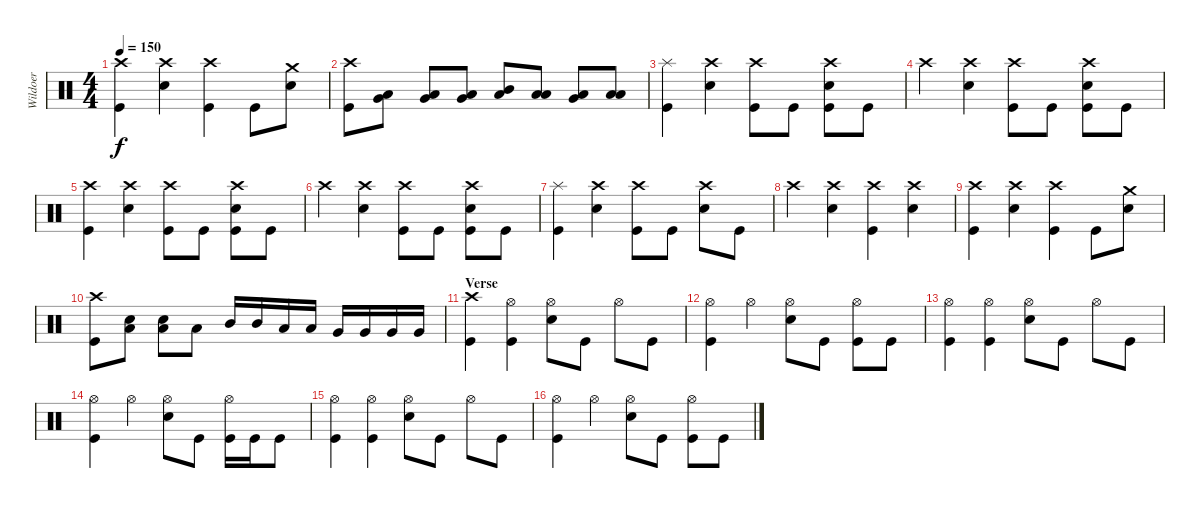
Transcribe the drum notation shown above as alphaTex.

\track ("Wildoer" "Wildoer") {instrument percussion}
\staff {score}
\articulation defaults
\ts (4 4)
\tempo 150
\clef neutral
\ks c
("Crash high (hit)" "Kick (hit)").4{dy f} ("Crash high (hit)" "Electric Snare (hit)").4 ("Crash high (hit)" "Kick (hit)").4 "Kick (hit)".8 ("Crash medium (hit)" "Electric Snare (hit)").8 |
("Crash high (hit)" "Kick (hit)").8 ("Low Floor Tom (hit)" "Very Low Tom (hit)").8 ("Low Floor Tom (hit)" "Very Low Tom (hit)").8 ("Low Floor Tom (hit)" "Very Low Tom (hit)").8 ("Mid Tom (hit)" "Low Floor Tom (hit)").8 ("Low Tom (hit)" "Low Floor Tom (hit)").8 ("Very Low Tom (hit)" "Low Floor Tom (hit)").8 ("Low Tom (hit)" "Low Floor Tom (hit)").8 |
("Splash (hit)" "Kick (hit)").4 ("Crash high (hit)" "Electric Snare (hit)").4 ("Crash high (hit)" "Kick (hit)").8 "Kick (hit)".8 ("Crash high (hit)" "Electric Snare (hit)" "Kick (hit)").8 "Kick (hit)".8 |
"Crash high (hit)".4 ("Crash high (hit)" "Electric Snare (hit)").4 ("Crash high (hit)" "Kick (hit)").8 "Kick (hit)".8 ("Crash high (hit)" "Electric Snare (hit)" "Kick (hit)").8 "Kick (hit)".8 |
("Crash high (hit)" "Kick (hit)").4 ("Crash high (hit)" "Electric Snare (hit)").4 ("Crash high (hit)" "Kick (hit)").8 "Kick (hit)".8 ("Crash high (hit)" "Electric Snare (hit)" "Kick (hit)").8 "Kick (hit)".8 |
"Crash high (hit)".4 ("Crash high (hit)" "Electric Snare (hit)").4 ("Crash high (hit)" "Kick (hit)").8 "Kick (hit)".8 ("Crash high (hit)" "Electric Snare (hit)" "Kick (hit)").8 "Kick (hit)".8 |
("Splash (hit)" "Kick (hit)").4 ("Crash high (hit)" "Electric Snare (hit)").4 ("Crash high (hit)" "Kick (hit)").8 "Kick (hit)".8 ("Crash high (hit)" "Electric Snare (hit)").8 "Kick (hit)".8 |
"Crash high (hit)".4 ("Crash high (hit)" "Electric Snare (hit)").4 ("Crash high (hit)" "Kick (hit)").4 ("Crash high (hit)" "Electric Snare (hit)").4 |
("Crash high (hit)" "Kick (hit)").4 ("Crash high (hit)" "Electric Snare (hit)").4 ("Crash high (hit)" "Kick (hit)").4 "Kick (hit)".8 ("Crash medium (hit)" "Electric Snare (hit)").8 |
("Crash high (hit)" "Kick (hit)").8 ("Low Floor Tom (hit)" "Electric Snare (hit)").8 ("Low Floor Tom (hit)" "Electric Snare (hit)").8 "Low Floor Tom (hit)".8 "Mid Tom (hit)".16 "Mid Tom (hit)".16 "Low Tom (hit)".16 "Low Tom (hit)".16 "Very Low Tom (hit)".16 "Very Low Tom (hit)".16 "Very Low Tom (hit)".16 "Very Low Tom (hit)".16 |
\section ("" "Verse")
("Crash high (hit)" "Kick (hit)").4 ("Hi-Hat (open)" "Kick (hit)").4 ("Hi-Hat (open)" "Electric Snare (hit)").8 "Kick (hit)".8 "Hi-Hat (open)".8 "Kick (hit)".8 |
("Hi-Hat (open)" "Kick (hit)").4 "Hi-Hat (open)".4 ("Hi-Hat (open)" "Electric Snare (hit)").8 "Kick (hit)".8 ("Hi-Hat (open)" "Kick (hit)").8 "Kick (hit)".8 |
("Hi-Hat (open)" "Kick (hit)").4 ("Hi-Hat (open)" "Kick (hit)").4 ("Hi-Hat (open)" "Electric Snare (hit)").8 "Kick (hit)".8 "Hi-Hat (open)".8 "Kick (hit)".8 |
("Hi-Hat (open)" "Kick (hit)").4 "Hi-Hat (open)".4 ("Hi-Hat (open)" "Electric Snare (hit)").8 "Kick (hit)".8 ("Hi-Hat (open)" "Kick (hit)").16 "Kick (hit)".16 "Kick (hit)".8 |
("Hi-Hat (open)" "Kick (hit)").4 ("Hi-Hat (open)" "Kick (hit)").4 ("Hi-Hat (open)" "Electric Snare (hit)").8 "Kick (hit)".8 "Hi-Hat (open)".8 "Kick (hit)".8 |
("Hi-Hat (open)" "Kick (hit)").4 "Hi-Hat (open)".4 ("Hi-Hat (open)" "Electric Snare (hit)").8 "Kick (hit)".8 ("Hi-Hat (open)" "Kick (hit)").8 "Kick (hit)".8
